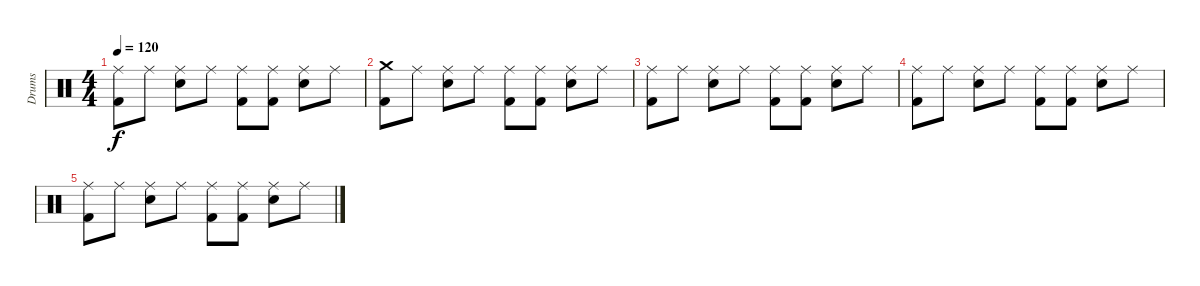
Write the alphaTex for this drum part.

\track ("Drums" "Drums") {instrument percussion}
\staff {score}
\articulation defaults
\ts (4 4)
\tempo 120
\clef neutral
\ks c
("Ride (middle)" "Kick (hit) 2").8{dy f} "Ride (middle)".8 ("Ride (middle)" "Snare (hit) 2").8 "Ride (middle)".8 ("Ride (middle)" "Kick (hit) 2").8 ("Ride (middle)" "Kick (hit) 2").8 ("Ride (middle)" "Snare (hit) 2").8 "Ride (middle)".8 |
("Crash medium (hit)" "Kick (hit) 2").8 "Ride (middle)".8 ("Ride (middle)" "Snare (hit) 2").8 "Ride (middle)".8 ("Ride (middle)" "Kick (hit) 2").8 ("Ride (middle)" "Kick (hit) 2").8 ("Ride (middle)" "Snare (hit) 2").8 "Ride (middle)".8 |
("Ride (middle)" "Kick (hit) 2").8 "Ride (middle)".8 ("Ride (middle)" "Snare (hit) 2").8 "Ride (middle)".8 ("Ride (middle)" "Kick (hit) 2").8 ("Ride (middle)" "Kick (hit) 2").8 ("Ride (middle)" "Snare (hit) 2").8 "Ride (middle)".8 |
("Ride (middle)" "Kick (hit) 2").8 "Ride (middle)".8 ("Ride (middle)" "Snare (hit) 2").8 "Ride (middle)".8 ("Ride (middle)" "Kick (hit) 2").8 ("Ride (middle)" "Kick (hit) 2").8 ("Ride (middle)" "Snare (hit) 2").8 "Ride (middle)".8 |
("Ride (middle)" "Kick (hit) 2").8 "Ride (middle)".8 ("Ride (middle)" "Snare (hit) 2").8 "Ride (middle)".8 ("Ride (middle)" "Kick (hit) 2").8 ("Ride (middle)" "Kick (hit) 2").8 ("Ride (middle)" "Snare (hit) 2").8 "Ride (middle)".8
